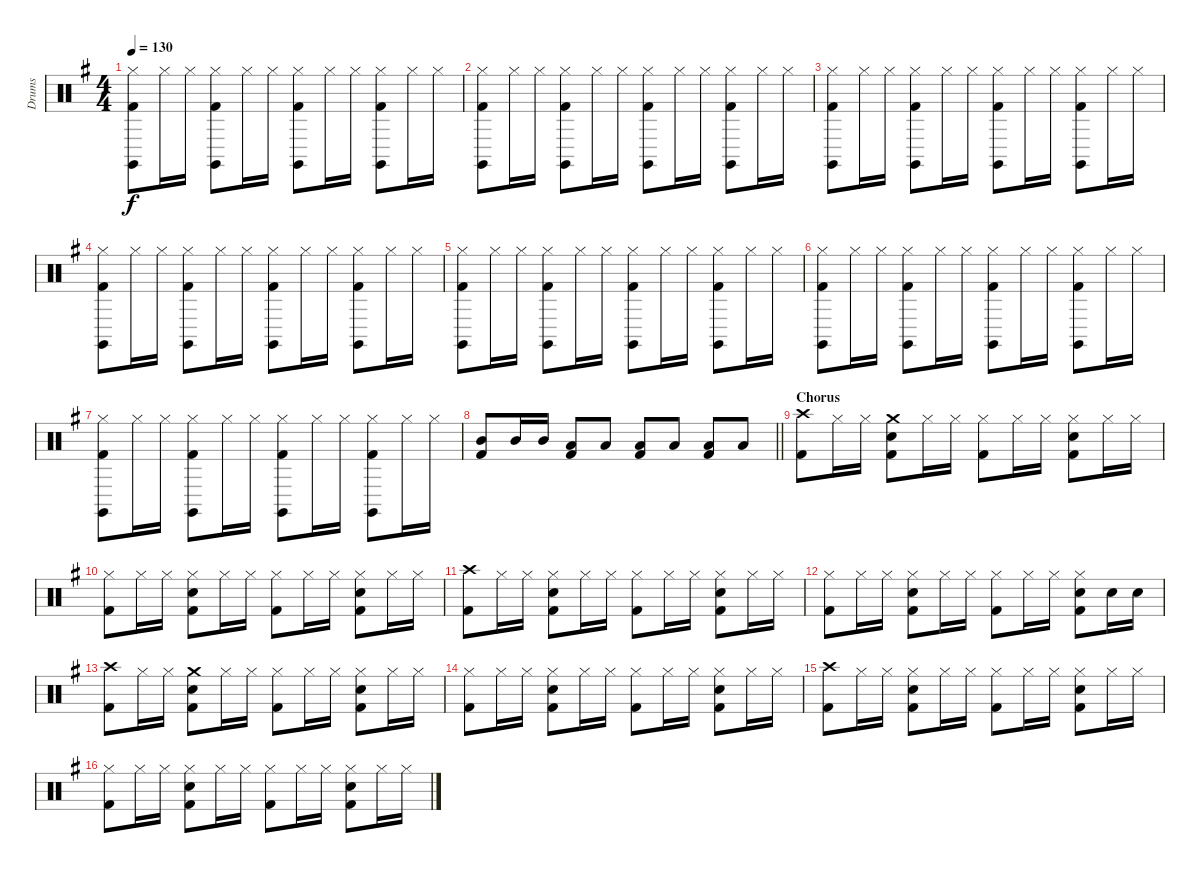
\track ("Drums" "Drums") {instrument percussion}
\staff {score}
\articulation defaults
\ts (4 4)
\tempo 130
\clef neutral
\ks g
("Hi-Hat (closed)" "Claves (hit)" "Kick (hit) 2").8{dy f} "Hi-Hat (closed)".16 "Hi-Hat (closed)".16 ("Hi-Hat (closed)" "Claves (hit)" "Kick (hit) 2").8 "Hi-Hat (closed)".16 "Hi-Hat (closed)".16 ("Hi-Hat (closed)" "Claves (hit)" "Kick (hit) 2").8 "Hi-Hat (closed)".16 "Hi-Hat (closed)".16 ("Hi-Hat (closed)" "Claves (hit)" "Kick (hit) 2").8 "Hi-Hat (closed)".16 "Hi-Hat (closed)".16 |
("Hi-Hat (closed)" "Claves (hit)" "Kick (hit) 2").8 "Hi-Hat (closed)".16 "Hi-Hat (closed)".16 ("Hi-Hat (closed)" "Claves (hit)" "Kick (hit) 2").8 "Hi-Hat (closed)".16 "Hi-Hat (closed)".16 ("Hi-Hat (closed)" "Claves (hit)" "Kick (hit) 2").8 "Hi-Hat (closed)".16 "Hi-Hat (closed)".16 ("Hi-Hat (closed)" "Claves (hit)" "Kick (hit) 2").8 "Hi-Hat (closed)".16 "Hi-Hat (closed)".16 |
("Hi-Hat (closed)" "Claves (hit)" "Kick (hit) 2").8 "Hi-Hat (closed)".16 "Hi-Hat (closed)".16 ("Hi-Hat (closed)" "Claves (hit)" "Kick (hit) 2").8 "Hi-Hat (closed)".16 "Hi-Hat (closed)".16 ("Hi-Hat (closed)" "Claves (hit)" "Kick (hit) 2").8 "Hi-Hat (closed)".16 "Hi-Hat (closed)".16 ("Hi-Hat (closed)" "Claves (hit)" "Kick (hit) 2").8 "Hi-Hat (closed)".16 "Hi-Hat (closed)".16 |
("Hi-Hat (closed)" "Claves (hit)" "Kick (hit) 2").8 "Hi-Hat (closed)".16 "Hi-Hat (closed)".16 ("Hi-Hat (closed)" "Claves (hit)" "Kick (hit) 2").8 "Hi-Hat (closed)".16 "Hi-Hat (closed)".16 ("Hi-Hat (closed)" "Claves (hit)" "Kick (hit) 2").8 "Hi-Hat (closed)".16 "Hi-Hat (closed)".16 ("Hi-Hat (closed)" "Claves (hit)" "Kick (hit) 2").8 "Hi-Hat (closed)".16 "Hi-Hat (closed)".16 |
("Hi-Hat (closed)" "Claves (hit)" "Kick (hit) 2").8 "Hi-Hat (closed)".16 "Hi-Hat (closed)".16 ("Hi-Hat (closed)" "Claves (hit)" "Kick (hit) 2").8 "Hi-Hat (closed)".16 "Hi-Hat (closed)".16 ("Hi-Hat (closed)" "Claves (hit)" "Kick (hit) 2").8 "Hi-Hat (closed)".16 "Hi-Hat (closed)".16 ("Hi-Hat (closed)" "Claves (hit)" "Kick (hit) 2").8 "Hi-Hat (closed)".16 "Hi-Hat (closed)".16 |
("Hi-Hat (closed)" "Claves (hit)" "Kick (hit) 2").8 "Hi-Hat (closed)".16 "Hi-Hat (closed)".16 ("Hi-Hat (closed)" "Claves (hit)" "Kick (hit) 2").8 "Hi-Hat (closed)".16 "Hi-Hat (closed)".16 ("Hi-Hat (closed)" "Claves (hit)" "Kick (hit) 2").8 "Hi-Hat (closed)".16 "Hi-Hat (closed)".16 ("Hi-Hat (closed)" "Claves (hit)" "Kick (hit) 2").8 "Hi-Hat (closed)".16 "Hi-Hat (closed)".16 |
("Hi-Hat (closed)" "Claves (hit)" "Kick (hit) 2").8 "Hi-Hat (closed)".16 "Hi-Hat (closed)".16 ("Hi-Hat (closed)" "Claves (hit)" "Kick (hit) 2").8 "Hi-Hat (closed)".16 "Hi-Hat (closed)".16 ("Hi-Hat (closed)" "Claves (hit)" "Kick (hit) 2").8 "Hi-Hat (closed)".16 "Hi-Hat (closed)".16 ("Hi-Hat (closed)" "Claves (hit)" "Kick (hit) 2").8 "Hi-Hat (closed)".16 "Hi-Hat (closed)".16 |
\barLineRight lightlight
("Mid Tom (hit)" "Kick (hit) 2").8 "Mid Tom (hit)".16 "Mid Tom (hit)".16 ("Low Tom (hit)" "Kick (hit) 2").8 "Low Tom (hit)".8 ("Low Tom (hit)" "Kick (hit) 2").8 "Low Tom (hit)".8 ("Low Tom (hit)" "Kick (hit) 2").8 "Low Floor Tom (hit)".8 |
\section ("" "Chorus")
("Crash high (hit)" "Kick (hit) 2").8 "Hi-Hat (closed)".16 "Hi-Hat (closed)".16 ("Crash medium (hit)" "Electric Snare (hit)" "Kick (hit) 2").8 "Hi-Hat (closed)".16 "Hi-Hat (closed)".16 ("Hi-Hat (closed)" "Kick (hit) 2").8 "Hi-Hat (closed)".16 "Hi-Hat (closed)".16 ("Hi-Hat (closed)" "Electric Snare (hit)" "Kick (hit) 2").8 "Hi-Hat (closed)".16 "Hi-Hat (closed)".16 |
("Hi-Hat (closed)" "Kick (hit) 2").8 "Hi-Hat (closed)".16 "Hi-Hat (closed)".16 ("Hi-Hat (closed)" "Electric Snare (hit)" "Kick (hit) 2").8 "Hi-Hat (closed)".16 "Hi-Hat (closed)".16 ("Hi-Hat (closed)" "Kick (hit) 2").8 "Hi-Hat (closed)".16 "Hi-Hat (closed)".16 ("Hi-Hat (closed)" "Electric Snare (hit)" "Kick (hit) 2").8 "Hi-Hat (closed)".16 "Hi-Hat (closed)".16 |
("Crash high (hit)" "Kick (hit) 2").8 "Hi-Hat (closed)".16 "Hi-Hat (closed)".16 ("Hi-Hat (closed)" "Electric Snare (hit)" "Kick (hit) 2").8 "Hi-Hat (closed)".16 "Hi-Hat (closed)".16 ("Hi-Hat (closed)" "Kick (hit) 2").8 "Hi-Hat (closed)".16 "Hi-Hat (closed)".16 ("Hi-Hat (closed)" "Electric Snare (hit)" "Kick (hit) 2").8 "Hi-Hat (closed)".16 "Hi-Hat (closed)".16 |
("Hi-Hat (closed)" "Kick (hit) 2").8 "Hi-Hat (closed)".16 "Hi-Hat (closed)".16 ("Hi-Hat (closed)" "Electric Snare (hit)" "Kick (hit) 2").8 "Hi-Hat (closed)".16 "Hi-Hat (closed)".16 ("Hi-Hat (closed)" "Kick (hit) 2").8 "Hi-Hat (closed)".16 "Hi-Hat (closed)".16 ("Hi-Hat (closed)" "Electric Snare (hit)" "Kick (hit) 2").8 "Electric Snare (hit)".16 "Electric Snare (hit)".16 |
("Crash high (hit)" "Kick (hit) 2").8 "Hi-Hat (closed)".16 "Hi-Hat (closed)".16 ("Crash medium (hit)" "Electric Snare (hit)" "Kick (hit) 2").8 "Hi-Hat (closed)".16 "Hi-Hat (closed)".16 ("Hi-Hat (closed)" "Kick (hit) 2").8 "Hi-Hat (closed)".16 "Hi-Hat (closed)".16 ("Hi-Hat (closed)" "Electric Snare (hit)" "Kick (hit) 2").8 "Hi-Hat (closed)".16 "Hi-Hat (closed)".16 |
("Hi-Hat (closed)" "Kick (hit) 2").8 "Hi-Hat (closed)".16 "Hi-Hat (closed)".16 ("Hi-Hat (closed)" "Electric Snare (hit)" "Kick (hit) 2").8 "Hi-Hat (closed)".16 "Hi-Hat (closed)".16 ("Hi-Hat (closed)" "Kick (hit) 2").8 "Hi-Hat (closed)".16 "Hi-Hat (closed)".16 ("Hi-Hat (closed)" "Electric Snare (hit)" "Kick (hit) 2").8 "Hi-Hat (closed)".16 "Hi-Hat (closed)".16 |
("Crash high (hit)" "Kick (hit) 2").8 "Hi-Hat (closed)".16 "Hi-Hat (closed)".16 ("Hi-Hat (closed)" "Electric Snare (hit)" "Kick (hit) 2").8 "Hi-Hat (closed)".16 "Hi-Hat (closed)".16 ("Hi-Hat (closed)" "Kick (hit) 2").8 "Hi-Hat (closed)".16 "Hi-Hat (closed)".16 ("Hi-Hat (closed)" "Electric Snare (hit)" "Kick (hit) 2").8 "Hi-Hat (closed)".16 "Hi-Hat (closed)".16 |
("Hi-Hat (closed)" "Kick (hit) 2").8 "Hi-Hat (closed)".16 "Hi-Hat (closed)".16 ("Hi-Hat (closed)" "Electric Snare (hit)" "Kick (hit) 2").8 "Hi-Hat (closed)".16 "Hi-Hat (closed)".16 ("Hi-Hat (closed)" "Kick (hit) 2").8 "Hi-Hat (closed)".16 "Hi-Hat (closed)".16 ("Hi-Hat (closed)" "Electric Snare (hit)" "Kick (hit) 2").8 "Hi-Hat (closed)".16 "Hi-Hat (closed)".16
